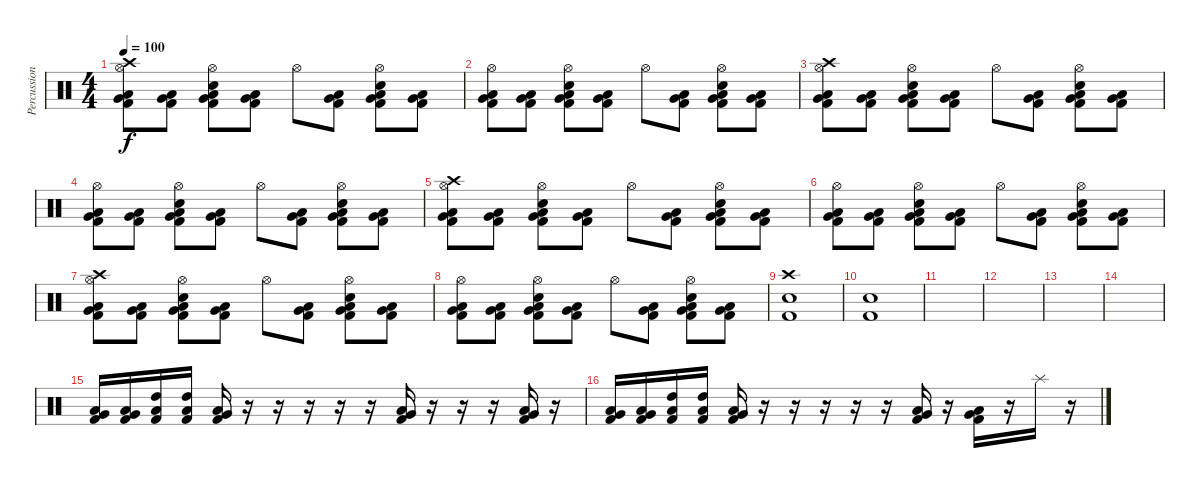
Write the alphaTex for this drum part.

\track ("Percussion" "Percussion") {instrument percussion}
\staff {score}
\articulation defaults
\ts (4 4)
\tempo 100
\clef neutral
\ks c
("Crash high (hit)" "Hi-Hat (open)" "Low Tom (hit)" "Very Low Tom (hit)" "Kick (hit) 2").8{dy f} ("Low Tom (hit)" "Very Low Tom (hit)" "Kick (hit) 2").8 ("Hi-Hat (open)" "Very Low Tom (hit)" "Low Floor Tom (hit)" "Electric Snare (hit)" "Kick (hit) 2").8 ("Low Tom (hit)" "Very Low Tom (hit)" "Kick (hit) 2").8 "Hi-Hat (open)".8 ("Low Tom (hit)" "Very Low Tom (hit)" "Kick (hit) 2").8 ("Hi-Hat (open)" "Very Low Tom (hit)" "Low Floor Tom (hit)" "Electric Snare (hit)" "Kick (hit) 2").8 ("Low Tom (hit)" "Very Low Tom (hit)" "Kick (hit) 2").8 |
("Hi-Hat (open)" "Low Tom (hit)" "Very Low Tom (hit)" "Kick (hit) 2").8 ("Low Tom (hit)" "Very Low Tom (hit)" "Kick (hit) 2").8 ("Hi-Hat (open)" "Very Low Tom (hit)" "Low Floor Tom (hit)" "Electric Snare (hit)" "Kick (hit) 2").8 ("Low Tom (hit)" "Very Low Tom (hit)" "Kick (hit) 2").8 "Hi-Hat (open)".8 ("Low Tom (hit)" "Very Low Tom (hit)" "Kick (hit) 2").8 ("Hi-Hat (open)" "Very Low Tom (hit)" "Low Floor Tom (hit)" "Electric Snare (hit)" "Kick (hit) 2").8 ("Low Tom (hit)" "Very Low Tom (hit)" "Kick (hit) 2").8 |
("Crash high (hit)" "Hi-Hat (open)" "Low Tom (hit)" "Very Low Tom (hit)" "Kick (hit) 2").8 ("Low Tom (hit)" "Very Low Tom (hit)" "Kick (hit) 2").8 ("Hi-Hat (open)" "Very Low Tom (hit)" "Low Floor Tom (hit)" "Electric Snare (hit)" "Kick (hit) 2").8 ("Low Tom (hit)" "Very Low Tom (hit)" "Kick (hit) 2").8 "Hi-Hat (open)".8 ("Low Tom (hit)" "Very Low Tom (hit)" "Kick (hit) 2").8 ("Hi-Hat (open)" "Very Low Tom (hit)" "Low Floor Tom (hit)" "Electric Snare (hit)" "Kick (hit) 2").8 ("Low Tom (hit)" "Very Low Tom (hit)" "Kick (hit) 2").8 |
("Hi-Hat (open)" "Low Tom (hit)" "Very Low Tom (hit)" "Kick (hit) 2").8 ("Low Tom (hit)" "Very Low Tom (hit)" "Kick (hit) 2").8 ("Hi-Hat (open)" "Very Low Tom (hit)" "Low Floor Tom (hit)" "Electric Snare (hit)" "Kick (hit) 2").8 ("Low Tom (hit)" "Very Low Tom (hit)" "Kick (hit) 2").8 "Hi-Hat (open)".8 ("Low Tom (hit)" "Very Low Tom (hit)" "Kick (hit) 2").8 ("Hi-Hat (open)" "Very Low Tom (hit)" "Low Floor Tom (hit)" "Electric Snare (hit)" "Kick (hit) 2").8 ("Low Tom (hit)" "Very Low Tom (hit)" "Kick (hit) 2").8 |
("Crash high (hit)" "Hi-Hat (open)" "Low Tom (hit)" "Very Low Tom (hit)" "Kick (hit) 2").8 ("Low Tom (hit)" "Very Low Tom (hit)" "Kick (hit) 2").8 ("Hi-Hat (open)" "Very Low Tom (hit)" "Low Floor Tom (hit)" "Electric Snare (hit)" "Kick (hit) 2").8 ("Low Tom (hit)" "Very Low Tom (hit)" "Kick (hit) 2").8 "Hi-Hat (open)".8 ("Low Tom (hit)" "Very Low Tom (hit)" "Kick (hit) 2").8 ("Hi-Hat (open)" "Very Low Tom (hit)" "Low Floor Tom (hit)" "Electric Snare (hit)" "Kick (hit) 2").8 ("Low Tom (hit)" "Very Low Tom (hit)" "Kick (hit) 2").8 |
("Hi-Hat (open)" "Low Tom (hit)" "Very Low Tom (hit)" "Kick (hit) 2").8 ("Low Tom (hit)" "Very Low Tom (hit)" "Kick (hit) 2").8 ("Hi-Hat (open)" "Very Low Tom (hit)" "Low Floor Tom (hit)" "Electric Snare (hit)" "Kick (hit) 2").8 ("Low Tom (hit)" "Very Low Tom (hit)" "Kick (hit) 2").8 "Hi-Hat (open)".8 ("Low Tom (hit)" "Very Low Tom (hit)" "Kick (hit) 2").8 ("Hi-Hat (open)" "Very Low Tom (hit)" "Low Floor Tom (hit)" "Electric Snare (hit)" "Kick (hit) 2").8 ("Low Tom (hit)" "Very Low Tom (hit)" "Kick (hit) 2").8 |
("Crash high (hit)" "Hi-Hat (open)" "Low Tom (hit)" "Very Low Tom (hit)" "Kick (hit) 2").8 ("Low Tom (hit)" "Very Low Tom (hit)" "Kick (hit) 2").8 ("Hi-Hat (open)" "Very Low Tom (hit)" "Low Floor Tom (hit)" "Electric Snare (hit)" "Kick (hit) 2").8 ("Low Tom (hit)" "Very Low Tom (hit)" "Kick (hit) 2").8 "Hi-Hat (open)".8 ("Low Tom (hit)" "Very Low Tom (hit)" "Kick (hit) 2").8 ("Hi-Hat (open)" "Very Low Tom (hit)" "Low Floor Tom (hit)" "Electric Snare (hit)" "Kick (hit) 2").8 ("Low Tom (hit)" "Very Low Tom (hit)" "Kick (hit) 2").8 |
("Hi-Hat (open)" "Low Tom (hit)" "Very Low Tom (hit)" "Kick (hit) 2").8 ("Low Tom (hit)" "Very Low Tom (hit)" "Kick (hit) 2").8 ("Hi-Hat (open)" "Very Low Tom (hit)" "Low Floor Tom (hit)" "Electric Snare (hit)" "Kick (hit) 2").8 ("Low Tom (hit)" "Very Low Tom (hit)" "Kick (hit) 2").8 "Hi-Hat (open)".8 ("Low Tom (hit)" "Very Low Tom (hit)" "Kick (hit) 2").8 ("Hi-Hat (open)" "Very Low Tom (hit)" "Low Floor Tom (hit)" "Electric Snare (hit)" "Kick (hit) 2").8 ("Low Tom (hit)" "Very Low Tom (hit)" "Kick (hit) 2").8 |
("Crash high (hit)" "Electric Snare (hit)" "Kick (hit) 2").1 |
("Electric Snare (hit)" "Kick (hit) 2").1 |
|
|
|
|
("Low Floor Tom (hit)" "Very Low Tom (hit)" "Kick (hit) 2").16 ("Very Low Tom (hit)" "Low Tom (hit)" "Kick (hit) 2").16 ("Low Tom (hit)" "High Tom (hit)" "Kick (hit) 2").16 ("High Tom (hit)" "Low Tom (hit)" "Kick (hit) 2").16 ("Low Tom (hit)" "Very Low Tom (hit)" "Kick (hit) 2").16 r.16 r.16 r.16 r.16 r.16 ("Very Low Tom (hit)" "Low Tom (hit)" "Kick (hit) 2").16 r.16 r.16 r.16 ("Very Low Tom (hit)" "Low Tom (hit)" "Kick (hit) 2").16 r.16 |
("Low Floor Tom (hit)" "Very Low Tom (hit)" "Kick (hit) 2").16 ("Very Low Tom (hit)" "Low Tom (hit)" "Kick (hit) 2").16 ("Low Tom (hit)" "High Tom (hit)" "Kick (hit) 2").16 ("High Tom (hit)" "Low Tom (hit)" "Kick (hit) 2").16 ("Low Tom (hit)" "Very Low Tom (hit)" "Kick (hit) 2").16 r.16 r.16 r.16 r.16 r.16 ("Very Low Tom (hit)" "Low Tom (hit)" "Kick (hit) 2").16 r.16 ("Very Low Tom (hit)" "Low Tom (hit)" "Kick (hit) 2").16 r.16 "Splash (hit)".16 r.16
